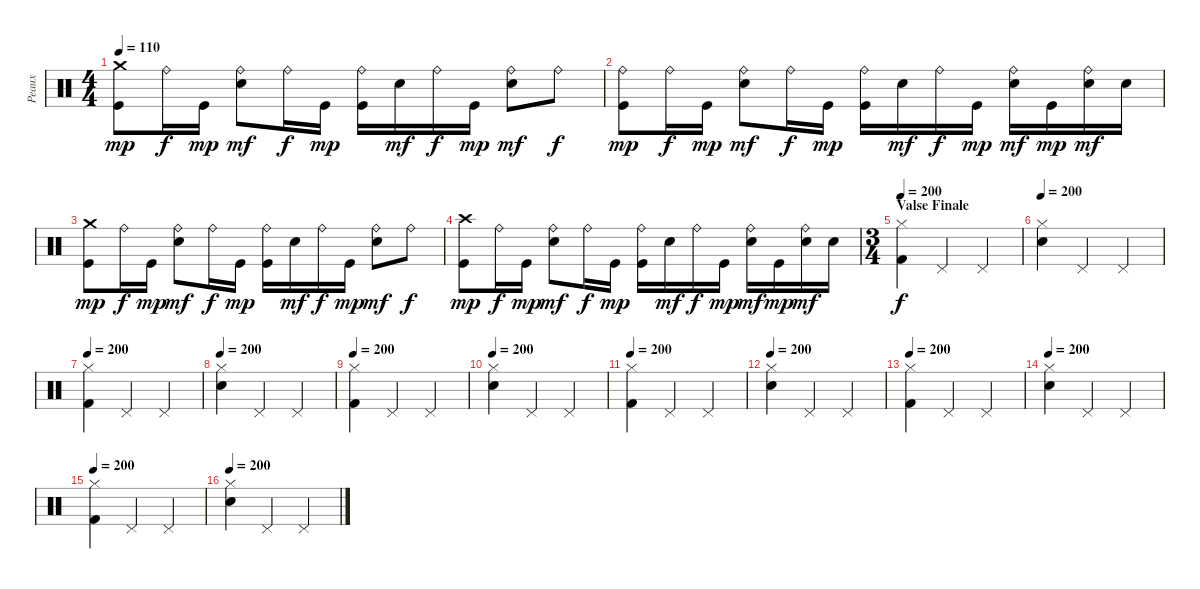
\track ("Peaux" "Peaux") {instrument percussion}
\staff {score}
\articulation defaults
\ts (4 4)
\tempo 110
\clef neutral
\ks c
("Crash medium (hit)" "Kick (hit)").8{dy mp volume 6} "Ride (bell)".16{dy f} "Kick (hit)".16{dy mp} ("Ride (bell)" "Snare (hit) 2").8{dy mf} "Ride (bell)".16{dy f} "Kick (hit)".16{dy mp} ("Ride (bell)" "Kick (hit)").16 "Snare (hit) 2".16{dy mf} "Ride (bell)".16{dy f} "Kick (hit)".16{dy mp} ("Ride (bell)" "Snare (hit) 2").8{dy mf} "Ride (bell)".8{dy f} |
("Ride (bell)" "Kick (hit)").8{dy mp} "Ride (bell)".16{dy f} "Kick (hit)".16{dy mp} ("Ride (bell)" "Snare (hit) 2").8{dy mf} "Ride (bell)".16{dy f} "Kick (hit)".16{dy mp} ("Ride (bell)" "Kick (hit)").16 "Snare (hit) 2".16{dy mf} "Ride (bell)".16{dy f} "Kick (hit)".16{dy mp} ("Ride (bell)" "Snare (hit) 2").16{dy mf} "Kick (hit)".16{dy mp} ("Ride (bell)" "Snare (hit) 2").16{dy mf} "Snare (hit) 2".16 |
("Crash medium (hit)" "Kick (hit)").8{dy mp} "Ride (bell)".16{dy f} "Kick (hit)".16{dy mp} ("Ride (bell)" "Snare (hit) 2").8{dy mf} "Ride (bell)".16{dy f} "Kick (hit)".16{dy mp} ("Ride (bell)" "Kick (hit)").16 "Snare (hit) 2".16{dy mf} "Ride (bell)".16{dy f} "Kick (hit)".16{dy mp} ("Ride (bell)" "Snare (hit) 2").8{dy mf} "Ride (bell)".8{dy f} |
("Crash high (hit)" "Kick (hit)").8{dy mp} "Ride (bell)".16{dy f} "Kick (hit)".16{dy mp} ("Ride (bell)" "Snare (hit) 2").8{dy mf} "Ride (bell)".16{dy f} "Kick (hit)".16{dy mp} ("Ride (bell)" "Kick (hit)").16 "Snare (hit) 2".16{dy mf} "Ride (bell)".16{dy f} "Kick (hit)".16{dy mp} ("Ride (bell)" "Snare (hit) 2").16{dy mf} "Kick (hit)".16{dy mp} ("Ride (bell)" "Snare (hit) 2").16{dy mf} "Snare (hit) 2".16 |
\ts (3 4)
\section ("" "Valse Finale")
\tempo 200
("Hi-Hat (closed)" "Kick (hit) 2").4{dy f volume 9} "Pedal Hi-Hat (hit)".4 "Pedal Hi-Hat (hit)".4 |
\tempo 200
("Hi-Hat (closed)" "Snare (hit) 2").4 "Pedal Hi-Hat (hit)".4 "Pedal Hi-Hat (hit)".4 |
\tempo 200
("Hi-Hat (closed)" "Kick (hit) 2").4 "Pedal Hi-Hat (hit)".4 "Pedal Hi-Hat (hit)".4 |
\tempo 200
("Hi-Hat (closed)" "Snare (hit) 2").4 "Pedal Hi-Hat (hit)".4 "Pedal Hi-Hat (hit)".4 |
\tempo 200
("Hi-Hat (closed)" "Kick (hit) 2").4 "Pedal Hi-Hat (hit)".4 "Pedal Hi-Hat (hit)".4 |
\tempo 200
("Hi-Hat (closed)" "Snare (hit) 2").4 "Pedal Hi-Hat (hit)".4 "Pedal Hi-Hat (hit)".4 |
\tempo 200
("Hi-Hat (closed)" "Kick (hit) 2").4 "Pedal Hi-Hat (hit)".4 "Pedal Hi-Hat (hit)".4 |
\tempo 200
("Hi-Hat (closed)" "Snare (hit) 2").4 "Pedal Hi-Hat (hit)".4 "Pedal Hi-Hat (hit)".4 |
\tempo 200
("Hi-Hat (closed)" "Kick (hit) 2").4 "Pedal Hi-Hat (hit)".4 "Pedal Hi-Hat (hit)".4 |
\tempo 200
("Hi-Hat (closed)" "Snare (hit) 2").4 "Pedal Hi-Hat (hit)".4 "Pedal Hi-Hat (hit)".4 |
\tempo 200
("Hi-Hat (closed)" "Kick (hit) 2").4 "Pedal Hi-Hat (hit)".4 "Pedal Hi-Hat (hit)".4 |
\tempo 200
("Hi-Hat (closed)" "Snare (hit) 2").4 "Pedal Hi-Hat (hit)".4 "Pedal Hi-Hat (hit)".4
